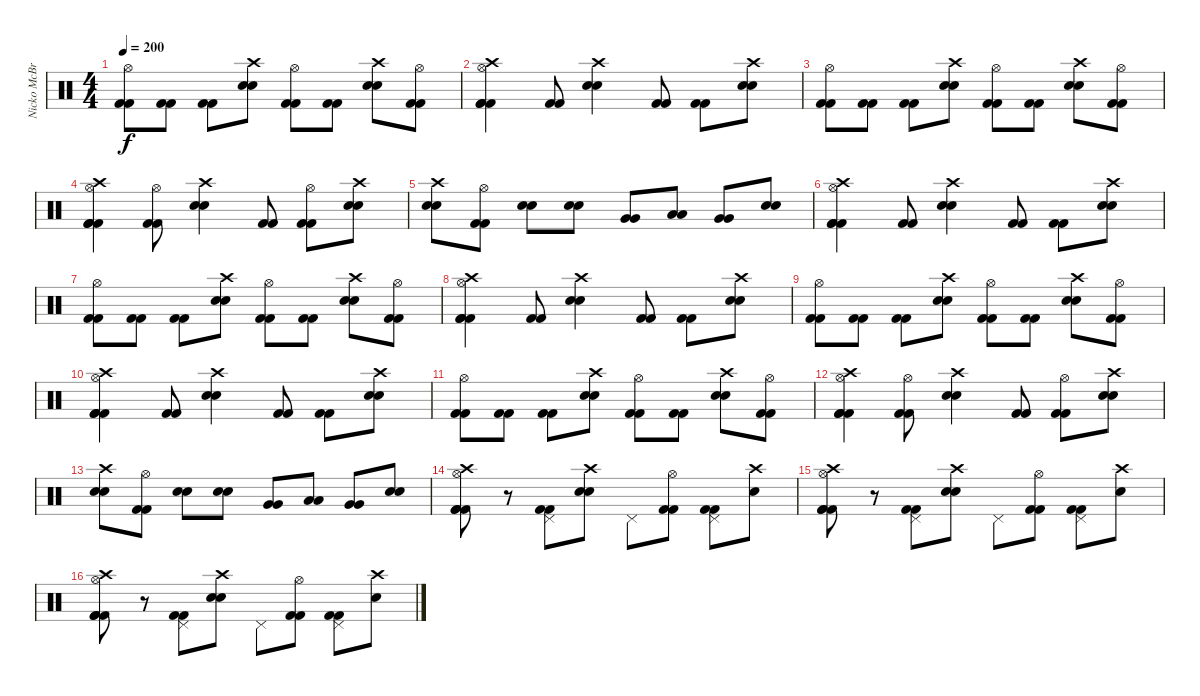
\track ("Nicko McBrain" "Nicko McBr") {instrument percussion}
\staff {score}
\articulation defaults
\ts (4 4)
\tempo 200
\clef neutral
\ks c
("Hi-Hat (open)" "Kick (hit) 2" "Kick (hit) 2").8{dy f} ("Kick (hit) 2" "Kick (hit) 2").8 ("Kick (hit) 2" "Kick (hit) 2").8 ("Crash high (hit)" "Snare (hit) 2" "Snare (hit) 2").8 ("Hi-Hat (open)" "Kick (hit) 2" "Kick (hit) 2").8 ("Kick (hit) 2" "Kick (hit) 2").8 ("Crash high (hit)" "Snare (hit) 2" "Snare (hit) 2").8 ("Hi-Hat (open)" "Kick (hit) 2" "Kick (hit) 2").8 |
("Crash high (hit)" "Hi-Hat (open)" "Kick (hit) 2" "Kick (hit) 2" "Kick (hit) 2").4 ("Kick (hit) 2" "Kick (hit) 2").8 ("Crash high (hit)" "Snare (hit) 2" "Snare (hit) 2").4 ("Kick (hit) 2" "Kick (hit) 2").8 ("Kick (hit) 2" "Kick (hit) 2").8 ("Crash high (hit)" "Snare (hit) 2" "Snare (hit) 2").8 |
("Hi-Hat (open)" "Kick (hit) 2" "Kick (hit) 2").8 ("Kick (hit) 2" "Kick (hit) 2").8 ("Kick (hit) 2" "Kick (hit) 2").8 ("Crash high (hit)" "Snare (hit) 2" "Snare (hit) 2").8 ("Hi-Hat (open)" "Kick (hit) 2" "Kick (hit) 2").8 ("Kick (hit) 2" "Kick (hit) 2").8 ("Crash high (hit)" "Snare (hit) 2" "Snare (hit) 2").8 ("Hi-Hat (open)" "Kick (hit) 2" "Kick (hit) 2").8 |
("Crash high (hit)" "Hi-Hat (open)" "Kick (hit) 2" "Kick (hit) 2" "Kick (hit) 2").4 ("Hi-Hat (open)" "Kick (hit) 2" "Kick (hit) 2").8 ("Crash high (hit)" "Snare (hit) 2" "Snare (hit) 2").4 ("Kick (hit) 2" "Kick (hit) 2").8 ("Hi-Hat (open)" "Kick (hit) 2" "Kick (hit) 2").8 ("Crash high (hit)" "Snare (hit) 2" "Snare (hit) 2").8 |
("Crash high (hit)" "Snare (hit) 2" "Snare (hit) 2").8 ("Hi-Hat (open)" "Kick (hit) 2" "Kick (hit) 2").8 ("Snare (hit) 2" "Snare (hit) 2").8 ("Snare (hit) 2" "Snare (hit) 2").8 ("Very Low Tom (hit)" "Very Low Tom (hit)").8 ("Low Floor Tom (hit)" "Low Floor Tom (hit)").8 ("Very Low Tom (hit)" "Very Low Tom (hit)").8 ("Snare (hit) 2" "Snare (hit) 2").8 |
("Crash high (hit)" "Hi-Hat (open)" "Kick (hit) 2" "Kick (hit) 2" "Kick (hit) 2").4 ("Kick (hit) 2" "Kick (hit) 2").8 ("Crash high (hit)" "Snare (hit) 2" "Snare (hit) 2").4 ("Kick (hit) 2" "Kick (hit) 2").8 ("Kick (hit) 2" "Kick (hit) 2").8 ("Crash high (hit)" "Snare (hit) 2" "Snare (hit) 2").8 |
("Hi-Hat (open)" "Kick (hit) 2" "Kick (hit) 2").8 ("Kick (hit) 2" "Kick (hit) 2").8 ("Kick (hit) 2" "Kick (hit) 2").8 ("Crash high (hit)" "Snare (hit) 2" "Snare (hit) 2").8 ("Hi-Hat (open)" "Kick (hit) 2" "Kick (hit) 2").8 ("Kick (hit) 2" "Kick (hit) 2").8 ("Crash high (hit)" "Snare (hit) 2" "Snare (hit) 2").8 ("Hi-Hat (open)" "Kick (hit) 2" "Kick (hit) 2").8 |
("Crash high (hit)" "Hi-Hat (open)" "Kick (hit) 2" "Kick (hit) 2" "Kick (hit) 2").4 ("Kick (hit) 2" "Kick (hit) 2").8 ("Crash high (hit)" "Snare (hit) 2" "Snare (hit) 2").4 ("Kick (hit) 2" "Kick (hit) 2").8 ("Kick (hit) 2" "Kick (hit) 2").8 ("Crash high (hit)" "Snare (hit) 2" "Snare (hit) 2").8 |
("Hi-Hat (open)" "Kick (hit) 2" "Kick (hit) 2").8 ("Kick (hit) 2" "Kick (hit) 2").8 ("Kick (hit) 2" "Kick (hit) 2").8 ("Crash high (hit)" "Snare (hit) 2" "Snare (hit) 2").8 ("Hi-Hat (open)" "Kick (hit) 2" "Kick (hit) 2").8 ("Kick (hit) 2" "Kick (hit) 2").8 ("Crash high (hit)" "Snare (hit) 2" "Snare (hit) 2").8 ("Hi-Hat (open)" "Kick (hit) 2" "Kick (hit) 2").8 |
("Crash high (hit)" "Hi-Hat (open)" "Kick (hit) 2" "Kick (hit) 2" "Kick (hit) 2").4 ("Kick (hit) 2" "Kick (hit) 2").8 ("Crash high (hit)" "Snare (hit) 2" "Snare (hit) 2").4 ("Kick (hit) 2" "Kick (hit) 2").8 ("Kick (hit) 2" "Kick (hit) 2").8 ("Crash high (hit)" "Snare (hit) 2" "Snare (hit) 2").8 |
("Hi-Hat (open)" "Kick (hit) 2" "Kick (hit) 2").8 ("Kick (hit) 2" "Kick (hit) 2").8 ("Kick (hit) 2" "Kick (hit) 2").8 ("Crash high (hit)" "Snare (hit) 2" "Snare (hit) 2").8 ("Hi-Hat (open)" "Kick (hit) 2" "Kick (hit) 2").8 ("Kick (hit) 2" "Kick (hit) 2").8 ("Crash high (hit)" "Snare (hit) 2" "Snare (hit) 2").8 ("Hi-Hat (open)" "Kick (hit) 2" "Kick (hit) 2").8 |
("Crash high (hit)" "Hi-Hat (open)" "Kick (hit) 2" "Kick (hit) 2" "Kick (hit) 2").4 ("Hi-Hat (open)" "Kick (hit) 2" "Kick (hit) 2").8 ("Crash high (hit)" "Snare (hit) 2" "Snare (hit) 2").4 ("Kick (hit) 2" "Kick (hit) 2").8 ("Hi-Hat (open)" "Kick (hit) 2" "Kick (hit) 2").8 ("Crash high (hit)" "Snare (hit) 2" "Snare (hit) 2").8 |
("Crash high (hit)" "Snare (hit) 2" "Snare (hit) 2").8 ("Hi-Hat (open)" "Kick (hit) 2" "Kick (hit) 2").8 ("Snare (hit) 2" "Snare (hit) 2").8 ("Snare (hit) 2" "Snare (hit) 2").8 ("Very Low Tom (hit)" "Very Low Tom (hit)").8 ("Low Floor Tom (hit)" "Low Floor Tom (hit)").8 ("Very Low Tom (hit)" "Very Low Tom (hit)").8 ("Snare (hit) 2" "Snare (hit) 2").8 |
("Crash high (hit)" "Hi-Hat (open)" "Kick (hit) 2" "Kick (hit) 2" "Kick (hit) 2").8 r.8 ("Pedal Hi-Hat (hit)" "Kick (hit) 2" "Kick (hit) 2").8 ("Crash high (hit)" "Snare (hit) 2" "Snare (hit) 2").8 "Pedal Hi-Hat (hit)".8 ("Hi-Hat (open)" "Kick (hit) 2" "Kick (hit) 2").8 ("Pedal Hi-Hat (hit)" "Kick (hit) 2" "Kick (hit) 2").8 ("Crash high (hit)" "Snare (hit) 2").8 |
("Crash high (hit)" "Hi-Hat (open)" "Kick (hit) 2" "Kick (hit) 2" "Kick (hit) 2").8 r.8 ("Pedal Hi-Hat (hit)" "Kick (hit) 2" "Kick (hit) 2").8 ("Crash high (hit)" "Snare (hit) 2" "Snare (hit) 2").8 "Pedal Hi-Hat (hit)".8 ("Hi-Hat (open)" "Kick (hit) 2" "Kick (hit) 2").8 ("Pedal Hi-Hat (hit)" "Kick (hit) 2" "Kick (hit) 2").8 ("Crash high (hit)" "Snare (hit) 2").8 |
("Crash high (hit)" "Hi-Hat (open)" "Kick (hit) 2" "Kick (hit) 2" "Kick (hit) 2").8 r.8 ("Pedal Hi-Hat (hit)" "Kick (hit) 2" "Kick (hit) 2").8 ("Crash high (hit)" "Snare (hit) 2" "Snare (hit) 2").8 "Pedal Hi-Hat (hit)".8 ("Hi-Hat (open)" "Kick (hit) 2" "Kick (hit) 2").8 ("Pedal Hi-Hat (hit)" "Kick (hit) 2" "Kick (hit) 2").8 ("Crash high (hit)" "Snare (hit) 2").8
